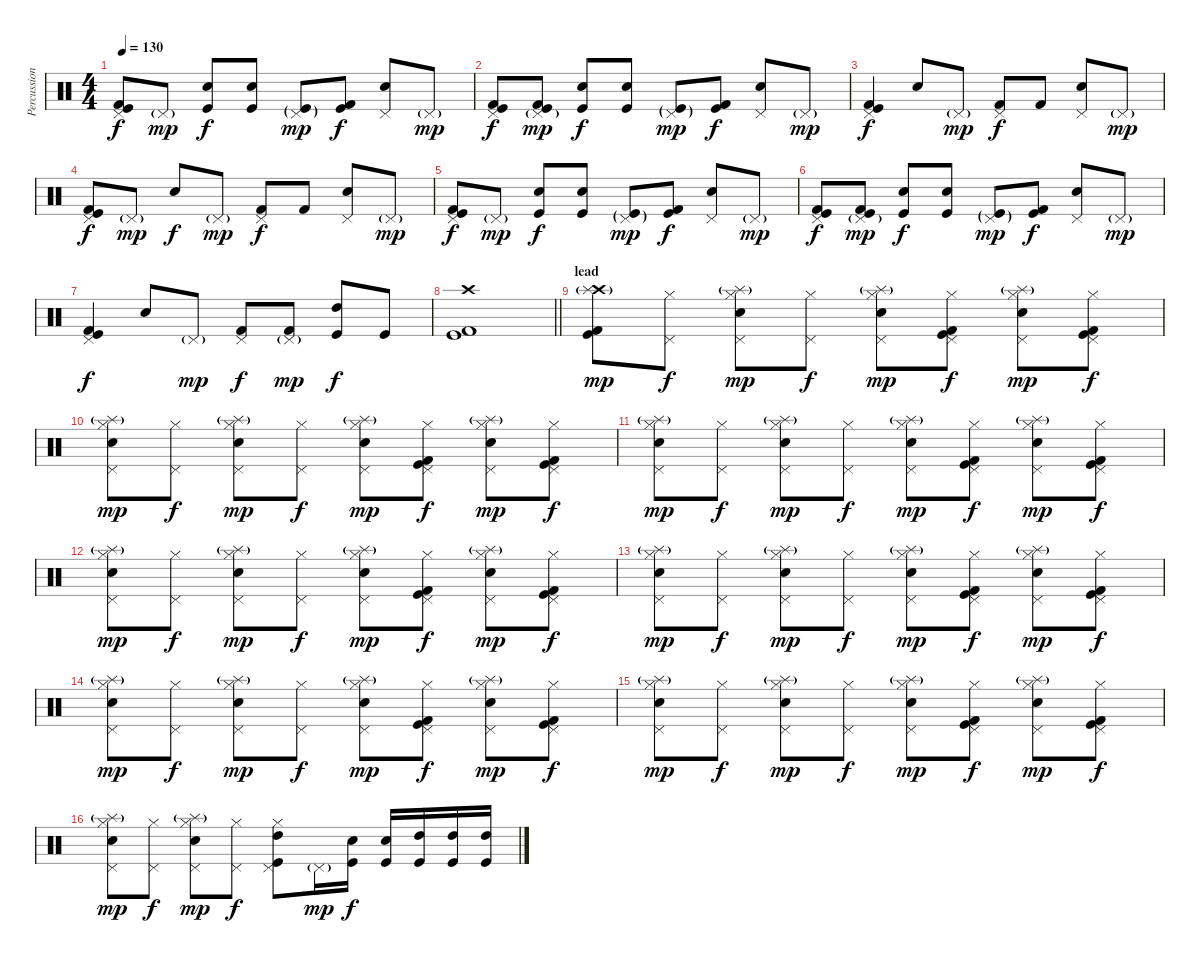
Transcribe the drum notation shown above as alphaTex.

\track ("Percussion(Wendell Garcia)" "Percussion") {instrument percussion}
\staff {score}
\articulation defaults
\ts (4 4)
\tempo 130
\clef neutral
\ks c
("Pedal Hi-Hat (hit)" "Kick (hit) 2" "Kick (hit)").8{dy f} "Pedal Hi-Hat (hit)"{g}.8{dy mp} ("Electric Snare (hit)" "Kick (hit)").8{dy f} ("Electric Snare (hit)" "Kick (hit)").8 ("Kick (hit)"{g} "Pedal Hi-Hat (hit)"{g}).8{dy mp} ("Kick (hit) 2" "Kick (hit)").8{dy f} ("Electric Snare (hit)" "Pedal Hi-Hat (hit)").8 "Pedal Hi-Hat (hit)"{g}.8{dy mp} |
("Pedal Hi-Hat (hit)" "Kick (hit) 2" "Kick (hit)").8{dy f} ("Pedal Hi-Hat (hit)"{g} "Kick (hit) 2" "Kick (hit)").8{dy mp} ("Electric Snare (hit)" "Kick (hit)").8{dy f} ("Electric Snare (hit)" "Kick (hit)").8 ("Kick (hit)"{g} "Pedal Hi-Hat (hit)"{g}).8{dy mp} ("Kick (hit) 2" "Kick (hit)").8{dy f} ("Electric Snare (hit)" "Pedal Hi-Hat (hit)").8 "Pedal Hi-Hat (hit)"{g}.8{dy mp} |
("Pedal Hi-Hat (hit)" "Kick (hit) 2" "Kick (hit)").4{dy f} "Electric Snare (hit)".8 "Pedal Hi-Hat (hit)"{g}.8{dy mp} ("Kick (hit) 2" "Pedal Hi-Hat (hit)").8{dy f} "Kick (hit) 2".8 ("Electric Snare (hit)" "Pedal Hi-Hat (hit)").8 "Pedal Hi-Hat (hit)"{g}.8{dy mp} |
("Pedal Hi-Hat (hit)" "Kick (hit) 2" "Kick (hit)").8{dy f} "Pedal Hi-Hat (hit)"{g}.8{dy mp} "Electric Snare (hit)".8{dy f} "Pedal Hi-Hat (hit)"{g}.8{dy mp} ("Kick (hit) 2" "Pedal Hi-Hat (hit)").8{dy f} "Kick (hit) 2".8 ("Electric Snare (hit)" "Pedal Hi-Hat (hit)").8 "Pedal Hi-Hat (hit)"{g}.8{dy mp} |
("Pedal Hi-Hat (hit)" "Kick (hit) 2" "Kick (hit)").8{dy f} "Pedal Hi-Hat (hit)"{g}.8{dy mp} ("Electric Snare (hit)" "Kick (hit)").8{dy f} ("Electric Snare (hit)" "Kick (hit)").8 ("Kick (hit)"{g} "Pedal Hi-Hat (hit)"{g}).8{dy mp} ("Kick (hit) 2" "Kick (hit)").8{dy f} ("Electric Snare (hit)" "Pedal Hi-Hat (hit)").8 "Pedal Hi-Hat (hit)"{g}.8{dy mp} |
("Pedal Hi-Hat (hit)" "Kick (hit) 2" "Kick (hit)").8{dy f} ("Pedal Hi-Hat (hit)"{g} "Kick (hit) 2" "Kick (hit)").8{dy mp} ("Electric Snare (hit)" "Kick (hit)").8{dy f} ("Electric Snare (hit)" "Kick (hit)").8 ("Kick (hit)"{g} "Pedal Hi-Hat (hit)"{g}).8{dy mp} ("Kick (hit) 2" "Kick (hit)").8{dy f} ("Electric Snare (hit)" "Pedal Hi-Hat (hit)").8 "Pedal Hi-Hat (hit)"{g}.8{dy mp} |
("Pedal Hi-Hat (hit)" "Kick (hit) 2" "Kick (hit)").4{dy f} "Electric Snare (hit)".8 "Pedal Hi-Hat (hit)"{g}.8{dy mp} ("Kick (hit) 2" "Pedal Hi-Hat (hit)").8{dy f} ("Kick (hit) 2" "Pedal Hi-Hat (hit)"{g}).8{dy mp} ("High Tom (hit)" "Kick (hit)").8{dy f} "Kick (hit)".8 |
\barLineRight lightlight
("Crash high (hit)" "Kick (hit) 2" "Kick (hit)").1 |
\section ("" "lead")
("Crash high (hit)" "Splash (hit)"{g} "Kick (hit)" "Kick (hit) 2").8{dy mp} ("Pedal Hi-Hat (hit)" "Hi-Hat (closed)").8{dy f} ("Pedal Hi-Hat (hit)" "Hi-Hat (closed)" "Splash (hit)"{g} "Electric Snare (hit)").8{dy mp} ("Pedal Hi-Hat (hit)" "Hi-Hat (closed)").8{dy f} ("Pedal Hi-Hat (hit)" "Hi-Hat (closed)" "Splash (hit)"{g} "Electric Snare (hit)").8{dy mp} ("Pedal Hi-Hat (hit)" "Hi-Hat (closed)" "Kick (hit)" "Kick (hit) 2").8{dy f} ("Pedal Hi-Hat (hit)" "Hi-Hat (closed)" "Splash (hit)"{g} "Electric Snare (hit)").8{dy mp} ("Pedal Hi-Hat (hit)" "Hi-Hat (closed)" "Kick (hit)" "Kick (hit) 2").8{dy f} |
("Pedal Hi-Hat (hit)" "Hi-Hat (closed)" "Splash (hit)"{g} "Electric Snare (hit)").8{dy mp} ("Pedal Hi-Hat (hit)" "Hi-Hat (closed)").8{dy f} ("Pedal Hi-Hat (hit)" "Hi-Hat (closed)" "Splash (hit)"{g} "Electric Snare (hit)").8{dy mp} ("Pedal Hi-Hat (hit)" "Hi-Hat (closed)").8{dy f} ("Pedal Hi-Hat (hit)" "Hi-Hat (closed)" "Splash (hit)"{g} "Electric Snare (hit)").8{dy mp} ("Pedal Hi-Hat (hit)" "Hi-Hat (closed)" "Kick (hit)" "Kick (hit) 2").8{dy f} ("Pedal Hi-Hat (hit)" "Hi-Hat (closed)" "Splash (hit)"{g} "Electric Snare (hit)").8{dy mp} ("Pedal Hi-Hat (hit)" "Hi-Hat (closed)" "Kick (hit)" "Kick (hit) 2").8{dy f} |
("Pedal Hi-Hat (hit)" "Hi-Hat (closed)" "Splash (hit)"{g} "Electric Snare (hit)").8{dy mp} ("Pedal Hi-Hat (hit)" "Hi-Hat (closed)").8{dy f} ("Pedal Hi-Hat (hit)" "Hi-Hat (closed)" "Splash (hit)"{g} "Electric Snare (hit)").8{dy mp} ("Pedal Hi-Hat (hit)" "Hi-Hat (closed)").8{dy f} ("Pedal Hi-Hat (hit)" "Hi-Hat (closed)" "Splash (hit)"{g} "Electric Snare (hit)").8{dy mp} ("Pedal Hi-Hat (hit)" "Hi-Hat (closed)" "Kick (hit)" "Kick (hit) 2").8{dy f} ("Pedal Hi-Hat (hit)" "Hi-Hat (closed)" "Splash (hit)"{g} "Electric Snare (hit)").8{dy mp} ("Pedal Hi-Hat (hit)" "Hi-Hat (closed)" "Kick (hit)" "Kick (hit) 2").8{dy f} |
("Pedal Hi-Hat (hit)" "Hi-Hat (closed)" "Splash (hit)"{g} "Electric Snare (hit)").8{dy mp} ("Pedal Hi-Hat (hit)" "Hi-Hat (closed)").8{dy f} ("Pedal Hi-Hat (hit)" "Hi-Hat (closed)" "Splash (hit)"{g} "Electric Snare (hit)").8{dy mp} ("Pedal Hi-Hat (hit)" "Hi-Hat (closed)").8{dy f} ("Pedal Hi-Hat (hit)" "Hi-Hat (closed)" "Splash (hit)"{g} "Electric Snare (hit)").8{dy mp} ("Pedal Hi-Hat (hit)" "Hi-Hat (closed)" "Kick (hit)" "Kick (hit) 2").8{dy f} ("Pedal Hi-Hat (hit)" "Hi-Hat (closed)" "Splash (hit)"{g} "Electric Snare (hit)").8{dy mp} ("Pedal Hi-Hat (hit)" "Hi-Hat (closed)" "Kick (hit)" "Kick (hit) 2").8{dy f} |
("Pedal Hi-Hat (hit)" "Hi-Hat (closed)" "Splash (hit)"{g} "Electric Snare (hit)").8{dy mp} ("Pedal Hi-Hat (hit)" "Hi-Hat (closed)").8{dy f} ("Pedal Hi-Hat (hit)" "Hi-Hat (closed)" "Splash (hit)"{g} "Electric Snare (hit)").8{dy mp} ("Pedal Hi-Hat (hit)" "Hi-Hat (closed)").8{dy f} ("Pedal Hi-Hat (hit)" "Hi-Hat (closed)" "Splash (hit)"{g} "Electric Snare (hit)").8{dy mp} ("Pedal Hi-Hat (hit)" "Hi-Hat (closed)" "Kick (hit)" "Kick (hit) 2").8{dy f} ("Pedal Hi-Hat (hit)" "Hi-Hat (closed)" "Splash (hit)"{g} "Electric Snare (hit)").8{dy mp} ("Pedal Hi-Hat (hit)" "Hi-Hat (closed)" "Kick (hit)" "Kick (hit) 2").8{dy f} |
("Pedal Hi-Hat (hit)" "Hi-Hat (closed)" "Splash (hit)"{g} "Electric Snare (hit)").8{dy mp} ("Pedal Hi-Hat (hit)" "Hi-Hat (closed)").8{dy f} ("Pedal Hi-Hat (hit)" "Hi-Hat (closed)" "Splash (hit)"{g} "Electric Snare (hit)").8{dy mp} ("Pedal Hi-Hat (hit)" "Hi-Hat (closed)").8{dy f} ("Pedal Hi-Hat (hit)" "Hi-Hat (closed)" "Splash (hit)"{g} "Electric Snare (hit)").8{dy mp} ("Pedal Hi-Hat (hit)" "Hi-Hat (closed)" "Kick (hit)" "Kick (hit) 2").8{dy f} ("Pedal Hi-Hat (hit)" "Hi-Hat (closed)" "Splash (hit)"{g} "Electric Snare (hit)").8{dy mp} ("Pedal Hi-Hat (hit)" "Hi-Hat (closed)" "Kick (hit)" "Kick (hit) 2").8{dy f} |
("Pedal Hi-Hat (hit)" "Hi-Hat (closed)" "Splash (hit)"{g} "Electric Snare (hit)").8{dy mp} ("Pedal Hi-Hat (hit)" "Hi-Hat (closed)").8{dy f} ("Pedal Hi-Hat (hit)" "Hi-Hat (closed)" "Splash (hit)"{g} "Electric Snare (hit)").8{dy mp} ("Pedal Hi-Hat (hit)" "Hi-Hat (closed)").8{dy f} ("Pedal Hi-Hat (hit)" "Hi-Hat (closed)" "Splash (hit)"{g} "Electric Snare (hit)").8{dy mp} ("Pedal Hi-Hat (hit)" "Hi-Hat (closed)" "Kick (hit)" "Kick (hit) 2").8{dy f} ("Pedal Hi-Hat (hit)" "Hi-Hat (closed)" "Splash (hit)"{g} "Electric Snare (hit)").8{dy mp} ("Pedal Hi-Hat (hit)" "Hi-Hat (closed)" "Kick (hit)" "Kick (hit) 2").8{dy f} |
("Pedal Hi-Hat (hit)" "Hi-Hat (closed)" "Splash (hit)"{g} "Electric Snare (hit)").8{dy mp} ("Pedal Hi-Hat (hit)" "Hi-Hat (closed)").8{dy f} ("Pedal Hi-Hat (hit)" "Hi-Hat (closed)" "Splash (hit)"{g} "Electric Snare (hit)").8{dy mp} ("Pedal Hi-Hat (hit)" "Hi-Hat (closed)").8{dy f} ("Pedal Hi-Hat (hit)" "Hi-Hat (closed)" "Kick (hit)" "High Tom (hit)").8 "Pedal Hi-Hat (hit)"{g}.16{dy mp} ("Kick (hit)" "Electric Snare (hit)").16{dy f} ("Kick (hit)" "Electric Snare (hit)").16 ("Kick (hit)" "High Tom (hit)").16 ("Kick (hit)" "High Tom (hit)").16 ("Kick (hit)" "High Tom (hit)").16
